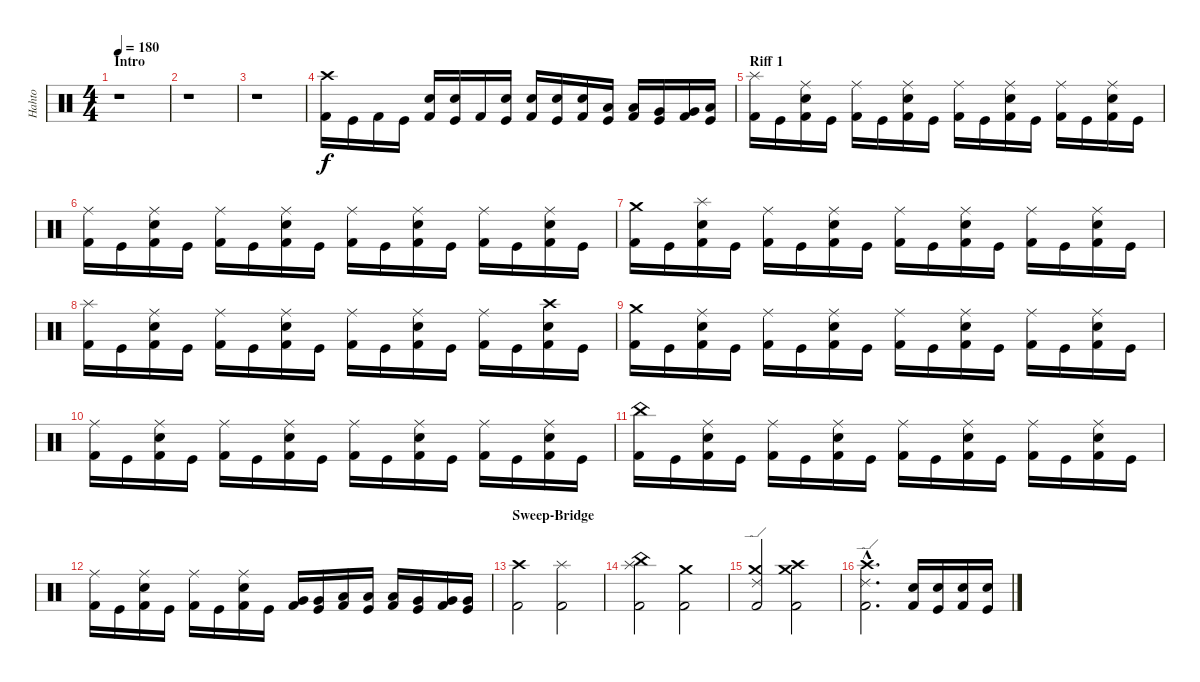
\track ("Hahto" "Hahto") {instrument percussion}
\staff {score}
\articulation defaults
\ts (4 4)
\section ("" "Intro")
\tempo 180
\clef neutral
\ks c
r.1{dy f} |
r.1 |
r.1 |
("Crash high (hit)" "Kick (hit) 2").16 "Kick (hit)".16 "Kick (hit) 2".16 "Kick (hit)".16 ("Snare (hit) 2" "Kick (hit) 2").16 ("Snare (hit) 2" "Kick (hit)").16 "Kick (hit) 2".16 ("Snare (hit) 2" "Kick (hit)").16 ("Snare (hit) 2" "Kick (hit) 2").16 ("Snare (hit) 2" "Kick (hit)").16 ("Snare (hit) 2" "Kick (hit) 2").16 ("Low Tom (hit)" "Kick (hit)").16 ("Low Tom (hit)" "Kick (hit) 2").16 ("Very Low Tom (hit)" "Kick (hit)").16 ("Very Low Tom (hit)" "Kick (hit) 2").16 ("Low Floor Tom (hit)" "Kick (hit)").16 |
\section ("" "Riff 1")
("Splash (hit)" "Kick (hit) 2").16 "Kick (hit)".16 ("Ride (middle)" "Snare (hit) 2" "Kick (hit) 2").16 "Kick (hit)".16 ("Ride (middle)" "Kick (hit) 2").16 "Kick (hit)".16 ("Ride (middle)" "Snare (hit) 2" "Kick (hit) 2").16 "Kick (hit)".16 ("Ride (middle)" "Kick (hit) 2").16 "Kick (hit)".16 ("Ride (middle)" "Snare (hit) 2" "Kick (hit) 2").16 "Kick (hit)".16 ("Ride (middle)" "Kick (hit) 2").16 "Kick (hit)".16 ("Ride (middle)" "Snare (hit) 2" "Kick (hit) 2").16 "Kick (hit)".16 |
("Ride (middle)" "Kick (hit) 2").16 "Kick (hit)".16 ("Ride (middle)" "Snare (hit) 2" "Kick (hit) 2").16 "Kick (hit)".16 ("Ride (middle)" "Kick (hit) 2").16 "Kick (hit)".16 ("Ride (middle)" "Snare (hit) 2" "Kick (hit) 2").16 "Kick (hit)".16 ("Ride (middle)" "Kick (hit) 2").16 "Kick (hit)".16 ("Ride (middle)" "Snare (hit) 2" "Kick (hit) 2").16 "Kick (hit)".16 ("Ride (middle)" "Kick (hit) 2").16 "Kick (hit)".16 ("Ride (middle)" "Snare (hit) 2" "Kick (hit) 2").16 "Kick (hit)".16 |
("Crash medium (hit)" "Kick (hit) 2").16 "Kick (hit)".16 ("Splash (hit)" "Snare (hit) 2" "Kick (hit) 2").16 "Kick (hit)".16 ("Ride (middle)" "Kick (hit) 2").16 "Kick (hit)".16 ("Ride (middle)" "Snare (hit) 2" "Kick (hit) 2").16 "Kick (hit)".16 ("Ride (middle)" "Kick (hit) 2").16 "Kick (hit)".16 ("Ride (middle)" "Snare (hit) 2" "Kick (hit) 2").16 "Kick (hit)".16 ("Ride (middle)" "Kick (hit) 2").16 "Kick (hit)".16 ("Ride (middle)" "Snare (hit) 2" "Kick (hit) 2").16 "Kick (hit)".16 |
("Splash (hit)" "Kick (hit) 2").16 "Kick (hit)".16 ("Ride (middle)" "Snare (hit) 2" "Kick (hit) 2").16 "Kick (hit)".16 ("Ride (middle)" "Kick (hit) 2").16 "Kick (hit)".16 ("Ride (middle)" "Snare (hit) 2" "Kick (hit) 2").16 "Kick (hit)".16 ("Ride (middle)" "Kick (hit) 2").16 "Kick (hit)".16 ("Ride (middle)" "Snare (hit) 2" "Kick (hit) 2").16 "Kick (hit)".16 ("Ride (middle)" "Kick (hit) 2").16 "Kick (hit)".16 ("Crash high (hit)" "Snare (hit) 2" "Kick (hit) 2").16 "Kick (hit)".16 |
("Crash medium (hit)" "Kick (hit) 2").16 "Kick (hit)".16 ("Ride (middle)" "Snare (hit) 2" "Kick (hit) 2").16 "Kick (hit)".16 ("Ride (middle)" "Kick (hit) 2").16 "Kick (hit)".16 ("Ride (middle)" "Snare (hit) 2" "Kick (hit) 2").16 "Kick (hit)".16 ("Ride (middle)" "Kick (hit) 2").16 "Kick (hit)".16 ("Ride (middle)" "Snare (hit) 2" "Kick (hit) 2").16 "Kick (hit)".16 ("Ride (middle)" "Kick (hit) 2").16 "Kick (hit)".16 ("Ride (middle)" "Snare (hit) 2" "Kick (hit) 2").16 "Kick (hit)".16 |
("Ride (middle)" "Kick (hit) 2").16 "Kick (hit)".16 ("Ride (middle)" "Snare (hit) 2" "Kick (hit) 2").16 "Kick (hit)".16 ("Ride (middle)" "Kick (hit) 2").16 "Kick (hit)".16 ("Ride (middle)" "Snare (hit) 2" "Kick (hit) 2").16 "Kick (hit)".16 ("Ride (middle)" "Kick (hit) 2").16 "Kick (hit)".16 ("Ride (middle)" "Snare (hit) 2" "Kick (hit) 2").16 "Kick (hit)".16 ("Ride (middle)" "Kick (hit) 2").16 "Kick (hit)".16 ("Ride (middle)" "Snare (hit) 2" "Kick (hit) 2").16 "Kick (hit)".16 |
("China (hit)" "Kick (hit) 2").16 "Kick (hit)".16 ("Ride (middle)" "Snare (hit) 2" "Kick (hit) 2").16 "Kick (hit)".16 ("Ride (middle)" "Kick (hit) 2").16 "Kick (hit)".16 ("Ride (middle)" "Snare (hit) 2" "Kick (hit) 2").16 "Kick (hit)".16 ("Ride (middle)" "Kick (hit) 2").16 "Kick (hit)".16 ("Ride (middle)" "Snare (hit) 2" "Kick (hit) 2").16 "Kick (hit)".16 ("Ride (middle)" "Kick (hit) 2").16 "Kick (hit)".16 ("Ride (middle)" "Snare (hit) 2" "Kick (hit) 2").16 "Kick (hit)".16 |
("Ride (middle)" "Kick (hit) 2").16 "Kick (hit)".16 ("Ride (middle)" "Snare (hit) 2" "Kick (hit) 2").16 "Kick (hit)".16 ("Ride (middle)" "Kick (hit) 2").16 "Kick (hit)".16 ("Ride (middle)" "Snare (hit) 2" "Kick (hit) 2").16 "Kick (hit)".16 ("Very Low Tom (hit)" "Kick (hit) 2").16 ("Very Low Tom (hit)" "Kick (hit)").16 ("Low Tom (hit)" "Kick (hit) 2").16 ("Low Tom (hit)" "Kick (hit)").16 ("Low Tom (hit)" "Kick (hit) 2").16 ("Very Low Tom (hit)" "Kick (hit)").16 ("Very Low Tom (hit)" "Kick (hit) 2").16 ("Very Low Tom (hit)" "Kick (hit)").16 |
\section ("" "Sweep-Bridge")
("Crash high (hit)" "Kick (hit) 2").2 ("Splash (hit)" "Kick (hit) 2").2 |
("China (hit)" "Splash (hit)" "Kick (hit) 2").2 ("Crash medium (hit)" "Kick (hit) 2").2 |
("Crash medium (hit)" "Ride (edge) 2" "Kick (hit) 2").2 ("Crash medium (hit)" "Crash high (hit)" "Kick (hit) 2").2 |
("Ride (edge) 2"{hac} "Crash high (hit)"{hac} "Kick (hit) 2"{hac}).2{d} ("Snare (hit) 2" "Kick (hit) 2").16 ("Snare (hit) 2" "Kick (hit)").16 ("Snare (hit) 2" "Kick (hit) 2").16 ("Snare (hit) 2" "Kick (hit)").16
